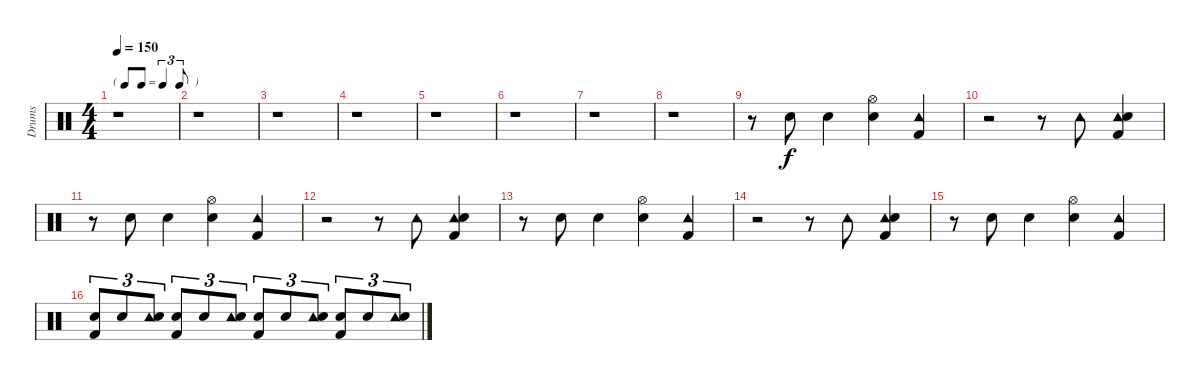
\track ("Drums" "Drums") {instrument percussion}
\staff {score}
\articulation defaults
\ts (4 4)
\tf triplet8th
\tempo 150
\clef neutral
\ks c
r.1{dy f} |
r.1 |
r.1 |
r.1 |
r.1 |
r.1 |
r.1 |
r.1 |
r.8 "Snare (hit) 2".8 "Snare (hit) 2".4 ("Hi-Hat (open)" "Snare (hit) 2").4 ("Tambourine (hit)" "Kick (hit) 2").4 |
r.2 r.8 "Tambourine (hit)".8 ("Tambourine (hit)" "Snare (hit) 2" "Kick (hit) 2").4 |
r.8 "Snare (hit) 2".8 "Snare (hit) 2".4 ("Hi-Hat (open)" "Snare (hit) 2").4 ("Tambourine (hit)" "Kick (hit) 2").4 |
r.2 r.8 "Tambourine (hit)".8 ("Tambourine (hit)" "Snare (hit) 2" "Kick (hit) 2").4 |
r.8 "Snare (hit) 2".8 "Snare (hit) 2".4 ("Hi-Hat (open)" "Snare (hit) 2").4 ("Tambourine (hit)" "Kick (hit) 2").4 |
r.2 r.8 "Tambourine (hit)".8 ("Tambourine (hit)" "Snare (hit) 2" "Kick (hit) 2").4 |
r.8 "Snare (hit) 2".8 "Snare (hit) 2".4 ("Hi-Hat (open)" "Snare (hit) 2").4 ("Tambourine (hit)" "Kick (hit) 2").4 |
("Snare (hit) 2" "Kick (hit) 2").8{tu (3 2)} "Snare (hit) 2".8{tu (3 2)} ("Tambourine (hit)" "Snare (hit) 2").8{tu (3 2)} ("Snare (hit) 2" "Kick (hit) 2").8{tu (3 2)} "Snare (hit) 2".8{tu (3 2)} ("Tambourine (hit)" "Snare (hit) 2").8{tu (3 2)} ("Snare (hit) 2" "Kick (hit) 2").8{tu (3 2)} "Snare (hit) 2".8{tu (3 2)} ("Tambourine (hit)" "Snare (hit) 2").8{tu (3 2)} ("Snare (hit) 2" "Kick (hit) 2").8{tu (3 2)} "Snare (hit) 2".8{tu (3 2)} ("Tambourine (hit)" "Snare (hit) 2").8{tu (3 2)}
